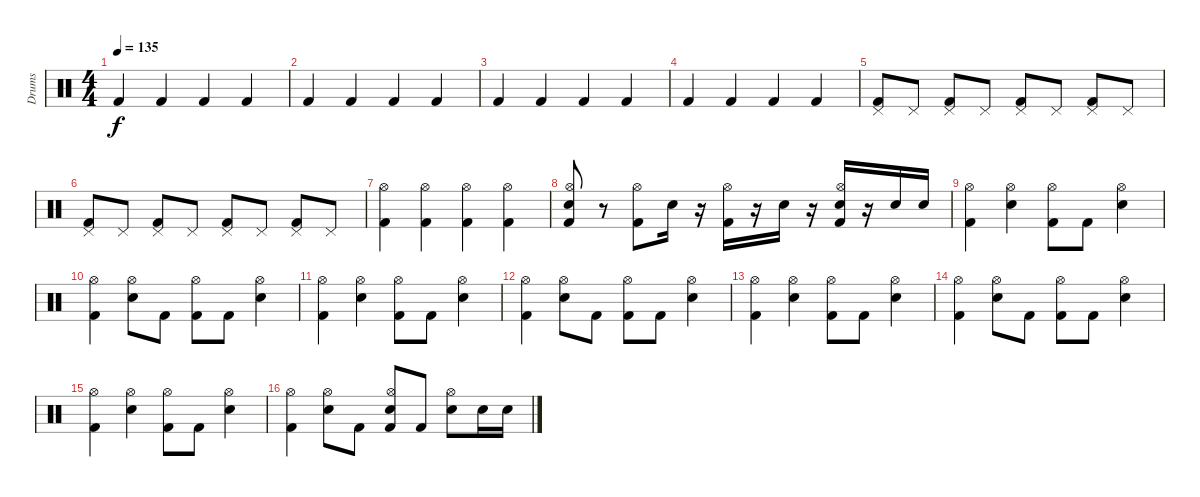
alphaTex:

\track ("Drums" "Drums") {instrument percussion}
\staff {score}
\articulation defaults
\ts (4 4)
\tempo 135
\clef neutral
\ks c "Kick (hit) 2".4{dy f} "Kick (hit) 2".4 "Kick (hit) 2".4 "Kick (hit) 2".4
|
"Kick (hit) 2".4 "Kick (hit) 2".4 "Kick (hit) 2".4 "Kick (hit) 2".4 |
"Kick (hit) 2".4 "Kick (hit) 2".4 "Kick (hit) 2".4 "Kick (hit) 2".4 |
"Kick (hit) 2".4 "Kick (hit) 2".4 "Kick (hit) 2".4 "Kick (hit) 2".4 |
("Pedal Hi-Hat (hit)" "Kick (hit) 2").8 "Pedal Hi-Hat (hit)".8 ("Pedal Hi-Hat (hit)" "Kick (hit) 2").8 "Pedal Hi-Hat (hit)".8 ("Pedal Hi-Hat (hit)" "Kick (hit) 2").8 "Pedal Hi-Hat (hit)".8 ("Pedal Hi-Hat (hit)" "Kick (hit) 2").8 "Pedal Hi-Hat (hit)".8 |
("Pedal Hi-Hat (hit)" "Kick (hit) 2").8 "Pedal Hi-Hat (hit)".8 ("Pedal Hi-Hat (hit)" "Kick (hit) 2").8 "Pedal Hi-Hat (hit)".8 ("Pedal Hi-Hat (hit)" "Kick (hit) 2").8 "Pedal Hi-Hat (hit)".8 ("Pedal Hi-Hat (hit)" "Kick (hit) 2").8 "Pedal Hi-Hat (hit)".8 |
("Hi-Hat (open)" "Kick (hit) 2").4 ("Hi-Hat (open)" "Kick (hit) 2").4 ("Hi-Hat (open)" "Kick (hit) 2").4 ("Hi-Hat (open)" "Kick (hit) 2").4 |
("Snare (hit) 2" "Hi-Hat (open)" "Kick (hit) 2").8 r.8 ("Hi-Hat (open)" "Kick (hit) 2").8 "Snare (hit) 2".16 r.16 ("Hi-Hat (open)" "Kick (hit) 2").16 r.16 "Snare (hit) 2".16 r.16 ("Snare (hit) 2" "Hi-Hat (open)" "Kick (hit) 2").16 r.16 "Snare (hit) 2".16 "Snare (hit) 2".16 |
("Hi-Hat (open)" "Kick (hit) 2").4 ("Snare (hit) 2" "Hi-Hat (open)").4 ("Hi-Hat (open)" "Kick (hit) 2").8 "Kick (hit) 2".8 ("Snare (hit) 2" "Hi-Hat (open)").4 |
("Hi-Hat (open)" "Kick (hit) 2").4 ("Snare (hit) 2" "Hi-Hat (open)").8 "Kick (hit) 2".8 ("Hi-Hat (open)" "Kick (hit) 2").8 "Kick (hit) 2".8 ("Snare (hit) 2" "Hi-Hat (open)").4 |
("Hi-Hat (open)" "Kick (hit) 2").4 ("Snare (hit) 2" "Hi-Hat (open)").4 ("Hi-Hat (open)" "Kick (hit) 2").8 "Kick (hit) 2".8 ("Snare (hit) 2" "Hi-Hat (open)").4 |
("Hi-Hat (open)" "Kick (hit) 2").4 ("Snare (hit) 2" "Hi-Hat (open)").8 "Kick (hit) 2".8 ("Hi-Hat (open)" "Kick (hit) 2").8 "Kick (hit) 2".8 ("Snare (hit) 2" "Hi-Hat (open)").4 |
("Hi-Hat (open)" "Kick (hit) 2").4 ("Snare (hit) 2" "Hi-Hat (open)").4 ("Hi-Hat (open)" "Kick (hit) 2").8 "Kick (hit) 2".8 ("Snare (hit) 2" "Hi-Hat (open)").4 |
("Hi-Hat (open)" "Kick (hit) 2").4 ("Snare (hit) 2" "Hi-Hat (open)").8 "Kick (hit) 2".8 ("Hi-Hat (open)" "Kick (hit) 2").8 "Kick (hit) 2".8 ("Snare (hit) 2" "Hi-Hat (open)").4 |
("Hi-Hat (open)" "Kick (hit) 2").4 ("Snare (hit) 2" "Hi-Hat (open)").4 ("Hi-Hat (open)" "Kick (hit) 2").8 "Kick (hit) 2".8 ("Snare (hit) 2" "Hi-Hat (open)").4 |
("Hi-Hat (open)" "Kick (hit) 2").4 ("Snare (hit) 2" "Hi-Hat (open)").8 "Kick (hit) 2".8 ("Snare (hit) 2" "Hi-Hat (open)" "Kick (hit) 2").8 "Kick (hit) 2".8 ("Snare (hit) 2" "Hi-Hat (open)").8 "Snare (hit) 2".16 "Snare (hit) 2".16
